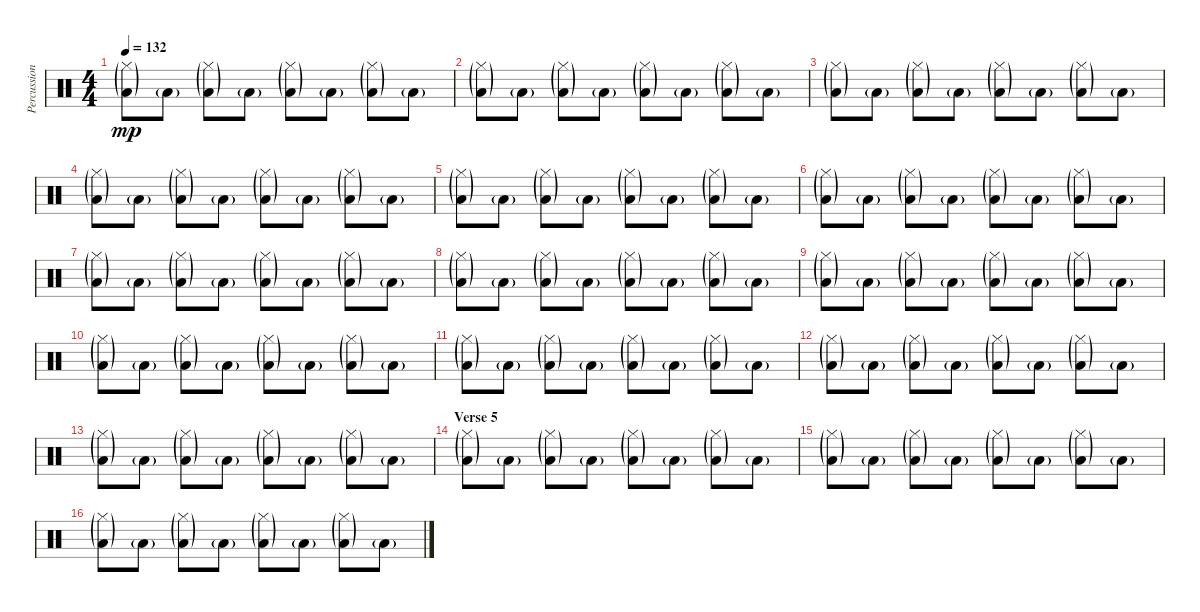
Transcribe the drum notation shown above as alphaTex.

\track ("Percussions" "Percussion") {instrument percussion}
\staff {score}
\articulation defaults
\ts (4 4)
\tempo 132
\clef neutral
\ks c
("Hi-Hat (closed)"{g} "Low Floor Tom (hit)"{g}).8{dy mp} "Low Floor Tom (hit)"{g}.8 ("Hi-Hat (closed)"{g} "Low Floor Tom (hit)"{g}).8 "Low Floor Tom (hit)"{g}.8 ("Hi-Hat (closed)"{g} "Low Floor Tom (hit)"{g}).8 "Low Floor Tom (hit)"{g}.8 ("Hi-Hat (closed)"{g} "Low Floor Tom (hit)"{g}).8 "Low Floor Tom (hit)"{g}.8 |
("Hi-Hat (closed)"{g} "Low Floor Tom (hit)"{g}).8 "Low Floor Tom (hit)"{g}.8 ("Hi-Hat (closed)"{g} "Low Floor Tom (hit)"{g}).8 "Low Floor Tom (hit)"{g}.8 ("Hi-Hat (closed)"{g} "Low Floor Tom (hit)"{g}).8 "Low Floor Tom (hit)"{g}.8 ("Hi-Hat (closed)"{g} "Low Floor Tom (hit)"{g}).8 "Low Floor Tom (hit)"{g}.8 |
("Hi-Hat (closed)"{g} "Low Floor Tom (hit)"{g}).8 "Low Floor Tom (hit)"{g}.8 ("Hi-Hat (closed)"{g} "Low Floor Tom (hit)"{g}).8 "Low Floor Tom (hit)"{g}.8 ("Hi-Hat (closed)"{g} "Low Floor Tom (hit)"{g}).8 "Low Floor Tom (hit)"{g}.8 ("Hi-Hat (closed)"{g} "Low Floor Tom (hit)"{g}).8 "Low Floor Tom (hit)"{g}.8 |
("Hi-Hat (closed)"{g} "Low Floor Tom (hit)"{g}).8 "Low Floor Tom (hit)"{g}.8 ("Hi-Hat (closed)"{g} "Low Floor Tom (hit)"{g}).8 "Low Floor Tom (hit)"{g}.8 ("Hi-Hat (closed)"{g} "Low Floor Tom (hit)"{g}).8 "Low Floor Tom (hit)"{g}.8 ("Hi-Hat (closed)"{g} "Low Floor Tom (hit)"{g}).8 "Low Floor Tom (hit)"{g}.8 |
("Hi-Hat (closed)"{g} "Low Floor Tom (hit)"{g}).8 "Low Floor Tom (hit)"{g}.8 ("Hi-Hat (closed)"{g} "Low Floor Tom (hit)"{g}).8 "Low Floor Tom (hit)"{g}.8 ("Hi-Hat (closed)"{g} "Low Floor Tom (hit)"{g}).8 "Low Floor Tom (hit)"{g}.8 ("Hi-Hat (closed)"{g} "Low Floor Tom (hit)"{g}).8 "Low Floor Tom (hit)"{g}.8 |
("Hi-Hat (closed)"{g} "Low Floor Tom (hit)"{g}).8 "Low Floor Tom (hit)"{g}.8 ("Hi-Hat (closed)"{g} "Low Floor Tom (hit)"{g}).8 "Low Floor Tom (hit)"{g}.8 ("Hi-Hat (closed)"{g} "Low Floor Tom (hit)"{g}).8 "Low Floor Tom (hit)"{g}.8 ("Hi-Hat (closed)"{g} "Low Floor Tom (hit)"{g}).8 "Low Floor Tom (hit)"{g}.8 |
("Hi-Hat (closed)"{g} "Low Floor Tom (hit)"{g}).8 "Low Floor Tom (hit)"{g}.8 ("Hi-Hat (closed)"{g} "Low Floor Tom (hit)"{g}).8 "Low Floor Tom (hit)"{g}.8 ("Hi-Hat (closed)"{g} "Low Floor Tom (hit)"{g}).8 "Low Floor Tom (hit)"{g}.8 ("Hi-Hat (closed)"{g} "Low Floor Tom (hit)"{g}).8 "Low Floor Tom (hit)"{g}.8 |
("Hi-Hat (closed)"{g} "Low Floor Tom (hit)"{g}).8 "Low Floor Tom (hit)"{g}.8 ("Hi-Hat (closed)"{g} "Low Floor Tom (hit)"{g}).8 "Low Floor Tom (hit)"{g}.8 ("Hi-Hat (closed)"{g} "Low Floor Tom (hit)"{g}).8 "Low Floor Tom (hit)"{g}.8 ("Hi-Hat (closed)"{g} "Low Floor Tom (hit)"{g}).8 "Low Floor Tom (hit)"{g}.8 |
("Hi-Hat (closed)"{g} "Low Floor Tom (hit)"{g}).8 "Low Floor Tom (hit)"{g}.8 ("Hi-Hat (closed)"{g} "Low Floor Tom (hit)"{g}).8 "Low Floor Tom (hit)"{g}.8 ("Hi-Hat (closed)"{g} "Low Floor Tom (hit)"{g}).8 "Low Floor Tom (hit)"{g}.8 ("Hi-Hat (closed)"{g} "Low Floor Tom (hit)"{g}).8 "Low Floor Tom (hit)"{g}.8 |
("Hi-Hat (closed)"{g} "Low Floor Tom (hit)"{g}).8 "Low Floor Tom (hit)"{g}.8 ("Hi-Hat (closed)"{g} "Low Floor Tom (hit)"{g}).8 "Low Floor Tom (hit)"{g}.8 ("Hi-Hat (closed)"{g} "Low Floor Tom (hit)"{g}).8 "Low Floor Tom (hit)"{g}.8 ("Hi-Hat (closed)"{g} "Low Floor Tom (hit)"{g}).8 "Low Floor Tom (hit)"{g}.8 |
("Hi-Hat (closed)"{g} "Low Floor Tom (hit)"{g}).8 "Low Floor Tom (hit)"{g}.8 ("Hi-Hat (closed)"{g} "Low Floor Tom (hit)"{g}).8 "Low Floor Tom (hit)"{g}.8 ("Hi-Hat (closed)"{g} "Low Floor Tom (hit)"{g}).8 "Low Floor Tom (hit)"{g}.8 ("Hi-Hat (closed)"{g} "Low Floor Tom (hit)"{g}).8 "Low Floor Tom (hit)"{g}.8 |
("Hi-Hat (closed)"{g} "Low Floor Tom (hit)"{g}).8 "Low Floor Tom (hit)"{g}.8 ("Hi-Hat (closed)"{g} "Low Floor Tom (hit)"{g}).8 "Low Floor Tom (hit)"{g}.8 ("Hi-Hat (closed)"{g} "Low Floor Tom (hit)"{g}).8 "Low Floor Tom (hit)"{g}.8 ("Hi-Hat (closed)"{g} "Low Floor Tom (hit)"{g}).8 "Low Floor Tom (hit)"{g}.8 |
("Hi-Hat (closed)"{g} "Low Floor Tom (hit)"{g}).8 "Low Floor Tom (hit)"{g}.8 ("Hi-Hat (closed)"{g} "Low Floor Tom (hit)"{g}).8 "Low Floor Tom (hit)"{g}.8 ("Hi-Hat (closed)"{g} "Low Floor Tom (hit)"{g}).8 "Low Floor Tom (hit)"{g}.8 ("Hi-Hat (closed)"{g} "Low Floor Tom (hit)"{g}).8 "Low Floor Tom (hit)"{g}.8 |
\section ("" "Verse 5")
("Hi-Hat (closed)"{g} "Low Floor Tom (hit)"{g}).8 "Low Floor Tom (hit)"{g}.8 ("Hi-Hat (closed)"{g} "Low Floor Tom (hit)"{g}).8 "Low Floor Tom (hit)"{g}.8 ("Hi-Hat (closed)"{g} "Low Floor Tom (hit)"{g}).8 "Low Floor Tom (hit)"{g}.8 ("Hi-Hat (closed)"{g} "Low Floor Tom (hit)"{g}).8 "Low Floor Tom (hit)"{g}.8 |
("Hi-Hat (closed)"{g} "Low Floor Tom (hit)"{g}).8 "Low Floor Tom (hit)"{g}.8 ("Hi-Hat (closed)"{g} "Low Floor Tom (hit)"{g}).8 "Low Floor Tom (hit)"{g}.8 ("Hi-Hat (closed)"{g} "Low Floor Tom (hit)"{g}).8 "Low Floor Tom (hit)"{g}.8 ("Hi-Hat (closed)"{g} "Low Floor Tom (hit)"{g}).8 "Low Floor Tom (hit)"{g}.8 |
("Hi-Hat (closed)"{g} "Low Floor Tom (hit)"{g}).8 "Low Floor Tom (hit)"{g}.8 ("Hi-Hat (closed)"{g} "Low Floor Tom (hit)"{g}).8 "Low Floor Tom (hit)"{g}.8 ("Hi-Hat (closed)"{g} "Low Floor Tom (hit)"{g}).8 "Low Floor Tom (hit)"{g}.8 ("Hi-Hat (closed)"{g} "Low Floor Tom (hit)"{g}).8 "Low Floor Tom (hit)"{g}.8
